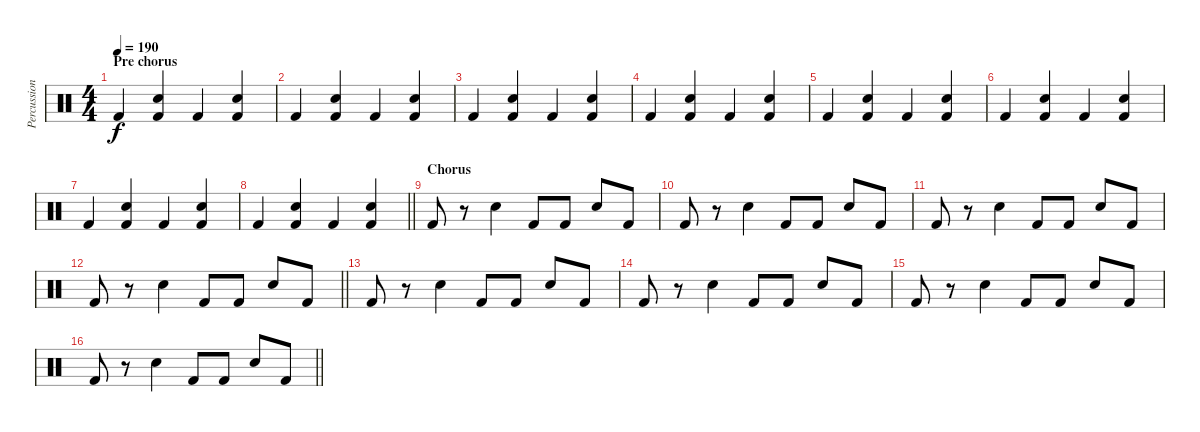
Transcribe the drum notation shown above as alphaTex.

\track ("Percussion" "Percussion") {instrument percussion}
\staff {score}
\articulation defaults
\ts (4 4)
\section ("" "Pre chorus")
\tempo 190
\clef neutral
\ks c "Kick (hit) 2".4{dy f}
("Electric Snare (hit)" "Kick (hit) 2").4 "Kick (hit) 2".4 ("Electric Snare (hit)" "Kick (hit) 2").4 |
"Kick (hit) 2".4 ("Electric Snare (hit)" "Kick (hit) 2").4 "Kick (hit) 2".4 ("Electric Snare (hit)" "Kick (hit) 2").4 |
"Kick (hit) 2".4 ("Electric Snare (hit)" "Kick (hit) 2").4 "Kick (hit) 2".4 ("Electric Snare (hit)" "Kick (hit) 2").4 |
"Kick (hit) 2".4 ("Electric Snare (hit)" "Kick (hit) 2").4 "Kick (hit) 2".4 ("Electric Snare (hit)" "Kick (hit) 2").4 |
"Kick (hit) 2".4 ("Electric Snare (hit)" "Kick (hit) 2").4 "Kick (hit) 2".4 ("Electric Snare (hit)" "Kick (hit) 2").4 |
"Kick (hit) 2".4 ("Electric Snare (hit)" "Kick (hit) 2").4 "Kick (hit) 2".4 ("Electric Snare (hit)" "Kick (hit) 2").4 |
"Kick (hit) 2".4 ("Electric Snare (hit)" "Kick (hit) 2").4 "Kick (hit) 2".4 ("Electric Snare (hit)" "Kick (hit) 2").4 |
\barLineRight lightlight "Kick (hit) 2".4
("Electric Snare (hit)" "Kick (hit) 2").4 "Kick (hit) 2".4 ("Electric Snare (hit)" "Kick (hit) 2").4 |
\section ("" "Chorus")
"Kick (hit) 2".8 r.8 "Electric Snare (hit)".4 "Kick (hit) 2".8 "Kick (hit) 2".8 "Electric Snare (hit)".8 "Kick (hit) 2".8 |
"Kick (hit) 2".8 r.8 "Electric Snare (hit)".4 "Kick (hit) 2".8 "Kick (hit) 2".8 "Electric Snare (hit)".8 "Kick (hit) 2".8 |
"Kick (hit) 2".8 r.8 "Electric Snare (hit)".4 "Kick (hit) 2".8 "Kick (hit) 2".8 "Electric Snare (hit)".8 "Kick (hit) 2".8 |
\barLineRight lightlight "Kick (hit) 2".8
r.8 "Electric Snare (hit)".4 "Kick (hit) 2".8 "Kick (hit) 2".8 "Electric Snare (hit)".8 "Kick (hit) 2".8 |
"Kick (hit) 2".8 r.8 "Electric Snare (hit)".4 "Kick (hit) 2".8 "Kick (hit) 2".8 "Electric Snare (hit)".8 "Kick (hit) 2".8 |
"Kick (hit) 2".8 r.8 "Electric Snare (hit)".4 "Kick (hit) 2".8 "Kick (hit) 2".8 "Electric Snare (hit)".8 "Kick (hit) 2".8 |
"Kick (hit) 2".8 r.8 "Electric Snare (hit)".4 "Kick (hit) 2".8 "Kick (hit) 2".8 "Electric Snare (hit)".8 "Kick (hit) 2".8 |
\barLineRight lightlight "Kick (hit) 2".8
r.8 "Electric Snare (hit)".4 "Kick (hit) 2".8 "Kick (hit) 2".8 "Electric Snare (hit)".8 "Kick (hit) 2".8
